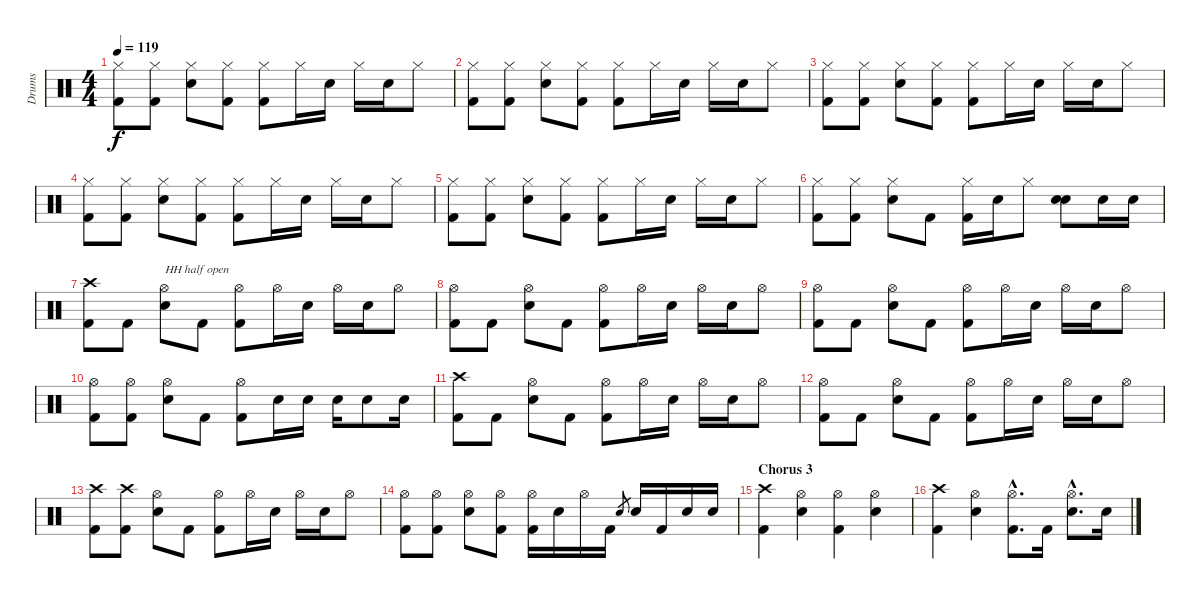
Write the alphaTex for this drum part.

\track ("Drums" "Drums") {instrument percussion}
\staff {score}
\articulation defaults
\ts (4 4)
\tempo 119
\clef neutral
\ks c
("Hi-Hat (closed)" "Kick (hit) 2").8{dy f} ("Hi-Hat (closed)" "Kick (hit) 2").8 ("Hi-Hat (closed)" "Electric Snare (hit)").8 ("Hi-Hat (closed)" "Kick (hit) 2").8 ("Hi-Hat (closed)" "Kick (hit) 2").8 "Hi-Hat (closed)".16 "Electric Snare (hit)".16 "Hi-Hat (closed)".16 "Electric Snare (hit)".16 "Hi-Hat (closed)".8 |
("Hi-Hat (closed)" "Kick (hit) 2").8 ("Hi-Hat (closed)" "Kick (hit) 2").8 ("Hi-Hat (closed)" "Electric Snare (hit)").8 ("Hi-Hat (closed)" "Kick (hit) 2").8 ("Hi-Hat (closed)" "Kick (hit) 2").8 "Hi-Hat (closed)".16 "Electric Snare (hit)".16 "Hi-Hat (closed)".16 "Electric Snare (hit)".16 "Hi-Hat (closed)".8 |
("Hi-Hat (closed)" "Kick (hit) 2").8 ("Hi-Hat (closed)" "Kick (hit) 2").8 ("Hi-Hat (closed)" "Electric Snare (hit)").8 ("Hi-Hat (closed)" "Kick (hit) 2").8 ("Hi-Hat (closed)" "Kick (hit) 2").8 "Hi-Hat (closed)".16 "Electric Snare (hit)".16 "Hi-Hat (closed)".16 "Electric Snare (hit)".16 "Hi-Hat (closed)".8 |
("Hi-Hat (closed)" "Kick (hit) 2").8 ("Hi-Hat (closed)" "Kick (hit) 2").8 ("Hi-Hat (closed)" "Electric Snare (hit)").8 ("Hi-Hat (closed)" "Kick (hit) 2").8 ("Hi-Hat (closed)" "Kick (hit) 2").8 "Hi-Hat (closed)".16 "Electric Snare (hit)".16 "Hi-Hat (closed)".16 "Electric Snare (hit)".16 "Hi-Hat (closed)".8 |
("Hi-Hat (closed)" "Kick (hit) 2").8 ("Hi-Hat (closed)" "Kick (hit) 2").8 ("Hi-Hat (closed)" "Electric Snare (hit)").8 ("Hi-Hat (closed)" "Kick (hit) 2").8 ("Hi-Hat (closed)" "Kick (hit) 2").8 "Hi-Hat (closed)".16 "Electric Snare (hit)".16 "Hi-Hat (closed)".16 "Electric Snare (hit)".16 "Hi-Hat (closed)".8 |
("Hi-Hat (closed)" "Kick (hit) 2").8 ("Hi-Hat (closed)" "Kick (hit) 2").8 ("Hi-Hat (closed)" "Electric Snare (hit)").8 "Kick (hit) 2".8 ("Hi-Hat (closed)" "Kick (hit) 2").16 "Electric Snare (hit)".16 "Hi-Hat (closed)".8 ("Electric Snare (hit)" "Electric Snare (hit)").8 "Electric Snare (hit)".16 "Electric Snare (hit)".16 |
("Crash high (hit)" "Kick (hit) 2").8 "Kick (hit) 2".8 ("Hi-Hat (open)" "Electric Snare (hit)").8{txt "HH half open"} "Kick (hit) 2".8 ("Hi-Hat (open)" "Kick (hit) 2").8 "Hi-Hat (open)".16 "Electric Snare (hit)".16 "Hi-Hat (open)".16 "Electric Snare (hit)".16 "Hi-Hat (open)".8 |
("Hi-Hat (open)" "Kick (hit) 2").8 "Kick (hit) 2".8 ("Hi-Hat (open)" "Electric Snare (hit)").8 "Kick (hit) 2".8 ("Hi-Hat (open)" "Kick (hit) 2").8 "Hi-Hat (open)".16 "Electric Snare (hit)".16 "Hi-Hat (open)".16 "Electric Snare (hit)".16 "Hi-Hat (open)".8 |
("Hi-Hat (open)" "Kick (hit) 2").8 "Kick (hit) 2".8 ("Hi-Hat (open)" "Electric Snare (hit)").8 "Kick (hit) 2".8 ("Hi-Hat (open)" "Kick (hit) 2").8 "Hi-Hat (open)".16 "Electric Snare (hit)".16 "Hi-Hat (open)".16 "Electric Snare (hit)".16 "Hi-Hat (open)".8 |
("Hi-Hat (open)" "Kick (hit) 2").8 ("Hi-Hat (open)" "Kick (hit) 2").8 ("Hi-Hat (open)" "Electric Snare (hit)").8 "Kick (hit) 2".8 ("Hi-Hat (open)" "Kick (hit) 2").8 "Electric Snare (hit)".16 "Electric Snare (hit)".16 "Electric Snare (hit)".16 "Electric Snare (hit)".8 "Electric Snare (hit)".16 |
("Crash high (hit)" "Kick (hit) 2").8 "Kick (hit) 2".8 ("Hi-Hat (open)" "Electric Snare (hit)").8 "Kick (hit) 2".8 ("Hi-Hat (open)" "Kick (hit) 2").8 "Hi-Hat (open)".16 "Electric Snare (hit)".16 "Hi-Hat (open)".16 "Electric Snare (hit)".16 "Hi-Hat (open)".8 |
("Hi-Hat (open)" "Kick (hit) 2").8 "Kick (hit) 2".8 ("Hi-Hat (open)" "Electric Snare (hit)").8 "Kick (hit) 2".8 ("Hi-Hat (open)" "Kick (hit) 2").8 "Hi-Hat (open)".16 "Electric Snare (hit)".16 "Hi-Hat (open)".16 "Electric Snare (hit)".16 "Hi-Hat (open)".8 |
("Crash high (hit)" "Kick (hit) 2").8 ("Crash high (hit)" "Kick (hit) 2").8 ("Hi-Hat (open)" "Electric Snare (hit)").8 "Kick (hit) 2".8 ("Hi-Hat (open)" "Kick (hit) 2").8 "Hi-Hat (open)".16 "Electric Snare (hit)".16 "Hi-Hat (open)".16 "Electric Snare (hit)".16 "Hi-Hat (open)".8 |
("Hi-Hat (open)" "Kick (hit) 2").8 ("Hi-Hat (open)" "Kick (hit) 2").8 ("Hi-Hat (open)" "Electric Snare (hit)").8 ("Hi-Hat (open)" "Kick (hit) 2").8 ("Hi-Hat (open)" "Kick (hit) 2").16 "Electric Snare (hit)".16 "Hi-Hat (open)".16 "Kick (hit) 2".16 "Electric Snare (hit)"{sl}.8{gr} "Electric Snare (hit)".16 "Kick (hit) 2".16 "Electric Snare (hit)".16 "Electric Snare (hit)".16 |
\section ("" "Chorus 3")
("Crash high (hit)" "Kick (hit) 2").4 ("Hi-Hat (open)" "Electric Snare (hit)").4 ("Hi-Hat (open)" "Kick (hit) 2").4 ("Hi-Hat (open)" "Electric Snare (hit)").4 |
("Crash high (hit)" "Kick (hit) 2").4 ("Hi-Hat (open)" "Electric Snare (hit)").4 ("Hi-Hat (open)"{hac} "Kick (hit) 2"{hac}).8{d} "Kick (hit) 2".16 ("Hi-Hat (open)"{hac} "Electric Snare (hit)"{hac}).8{d} "Electric Snare (hit)".16
